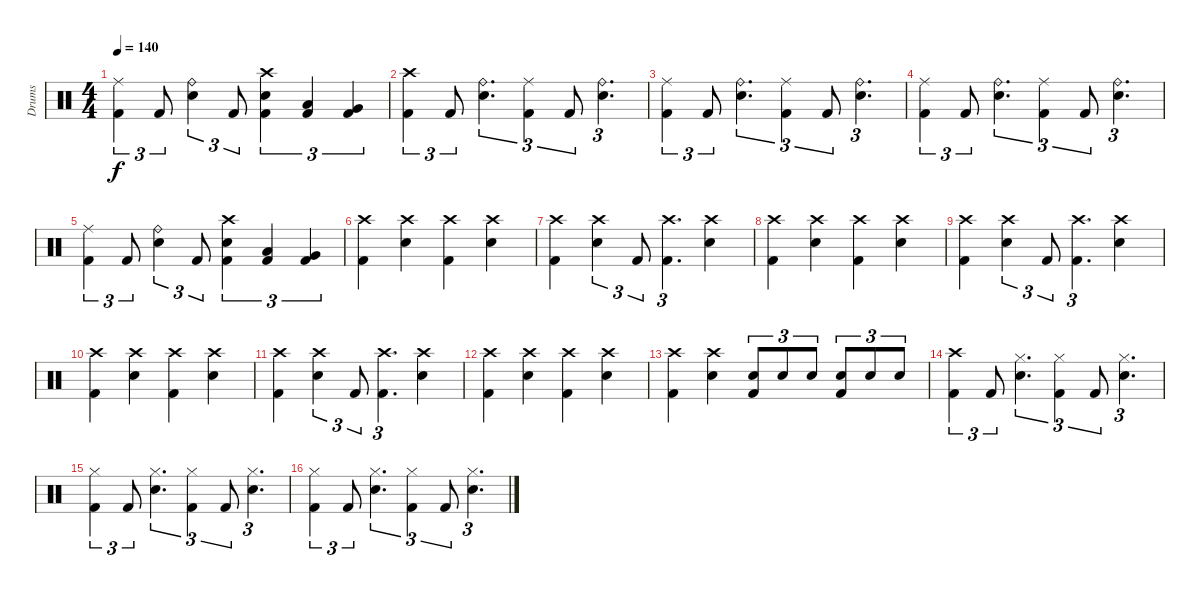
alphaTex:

\track ("Drums" "Drums") {instrument percussion}
\staff {score}
\articulation defaults
\ts (4 4)
\tempo 140
\clef neutral
\ks c
("Ride (middle)" "Kick (hit) 2").4{tu (3 2) dy f} "Kick (hit) 2".8{tu (3 2)} ("Ride (bell)" "Snare (hit) 2").4{tu (3 2)} "Kick (hit) 2".8{tu (3 2)} ("Crash high (hit)" "Kick (hit) 2" "Snare (hit) 2").4{tu (3 2)} ("Kick (hit) 2" "Low Tom (hit)").4{tu (3 2)} ("Kick (hit) 2" "Very Low Tom (hit)").4{tu (3 2)} |
("Crash high (hit)" "Kick (hit) 2").4{tu (3 2)} "Kick (hit) 2".8{tu (3 2)} ("Ride (bell)" "Snare (hit) 2").4{d tu (3 2)} ("Ride (middle)" "Kick (hit) 2").4{tu (3 2)} "Kick (hit) 2".8{tu (3 2)} ("Ride (bell)" "Snare (hit) 2").4{d tu (3 2)} |
("Ride (middle)" "Kick (hit) 2").4{tu (3 2)} "Kick (hit) 2".8{tu (3 2)} ("Ride (bell)" "Snare (hit) 2").4{d tu (3 2)} ("Ride (middle)" "Kick (hit) 2").4{tu (3 2)} "Kick (hit) 2".8{tu (3 2)} ("Ride (bell)" "Snare (hit) 2").4{d tu (3 2)} |
("Ride (middle)" "Kick (hit) 2").4{tu (3 2)} "Kick (hit) 2".8{tu (3 2)} ("Ride (bell)" "Snare (hit) 2").4{d tu (3 2)} ("Ride (middle)" "Kick (hit) 2").4{tu (3 2)} "Kick (hit) 2".8{tu (3 2)} ("Ride (bell)" "Snare (hit) 2").4{d tu (3 2)} |
("Ride (middle)" "Kick (hit) 2").4{tu (3 2)} "Kick (hit) 2".8{tu (3 2)} ("Ride (bell)" "Snare (hit) 2").4{tu (3 2)} "Kick (hit) 2".8{tu (3 2)} ("Crash high (hit)" "Kick (hit) 2" "Snare (hit) 2").4{tu (3 2)} ("Kick (hit) 2" "Low Tom (hit)").4{tu (3 2)} ("Kick (hit) 2" "Very Low Tom (hit)").4{tu (3 2)} |
("Crash high (hit)" "Kick (hit) 2").4 ("Crash high (hit)" "Snare (hit) 2").4 ("Crash high (hit)" "Kick (hit) 2").4 ("Crash high (hit)" "Snare (hit) 2").4 |
("Crash high (hit)" "Kick (hit) 2").4 ("Crash high (hit)" "Snare (hit) 2").4{tu (3 2)} "Kick (hit) 2".8{tu (3 2)} ("Crash high (hit)" "Kick (hit) 2").4{d tu (3 2)} ("Crash high (hit)" "Snare (hit) 2").4 |
("Crash high (hit)" "Kick (hit) 2").4 ("Crash high (hit)" "Snare (hit) 2").4 ("Crash high (hit)" "Kick (hit) 2").4 ("Crash high (hit)" "Snare (hit) 2").4 |
("Crash high (hit)" "Kick (hit) 2").4 ("Crash high (hit)" "Snare (hit) 2").4{tu (3 2)} "Kick (hit) 2".8{tu (3 2)} ("Crash high (hit)" "Kick (hit) 2").4{d tu (3 2)} ("Crash high (hit)" "Snare (hit) 2").4 |
("Crash high (hit)" "Kick (hit) 2").4 ("Crash high (hit)" "Snare (hit) 2").4 ("Crash high (hit)" "Kick (hit) 2").4 ("Crash high (hit)" "Snare (hit) 2").4 |
("Crash high (hit)" "Kick (hit) 2").4 ("Crash high (hit)" "Snare (hit) 2").4{tu (3 2)} "Kick (hit) 2".8{tu (3 2)} ("Crash high (hit)" "Kick (hit) 2").4{d tu (3 2)} ("Crash high (hit)" "Snare (hit) 2").4 |
("Crash high (hit)" "Kick (hit) 2").4 ("Crash high (hit)" "Snare (hit) 2").4 ("Crash high (hit)" "Kick (hit) 2").4 ("Crash high (hit)" "Snare (hit) 2").4 |
("Crash high (hit)" "Kick (hit) 2").4 ("Crash high (hit)" "Snare (hit) 2").4 ("Snare (hit) 2" "Kick (hit) 2").8{tu (3 2)} "Snare (hit) 2".8{tu (3 2)} "Snare (hit) 2".8{tu (3 2)} ("Snare (hit) 2" "Kick (hit) 2").8{tu (3 2)} "Snare (hit) 2".8{tu (3 2)} "Snare (hit) 2".8{tu (3 2)} |
("Crash high (hit)" "Kick (hit) 2").4{tu (3 2)} "Kick (hit) 2".8{tu (3 2)} ("Hi-Hat (closed)" "Snare (hit) 2").4{d tu (3 2)} ("Hi-Hat (closed)" "Kick (hit) 2").4{tu (3 2)} "Kick (hit) 2".8{tu (3 2)} ("Hi-Hat (closed)" "Snare (hit) 2").4{d tu (3 2)} |
("Hi-Hat (closed)" "Kick (hit) 2").4{tu (3 2)} "Kick (hit) 2".8{tu (3 2)} ("Hi-Hat (closed)" "Snare (hit) 2").4{d tu (3 2)} ("Hi-Hat (closed)" "Kick (hit) 2").4{tu (3 2)} "Kick (hit) 2".8{tu (3 2)} ("Hi-Hat (closed)" "Snare (hit) 2").4{d tu (3 2)} |
("Hi-Hat (closed)" "Kick (hit) 2").4{tu (3 2)} "Kick (hit) 2".8{tu (3 2)} ("Hi-Hat (closed)" "Snare (hit) 2").4{d tu (3 2)} ("Hi-Hat (closed)" "Kick (hit) 2").4{tu (3 2)} "Kick (hit) 2".8{tu (3 2)} ("Hi-Hat (closed)" "Snare (hit) 2").4{d tu (3 2)}
